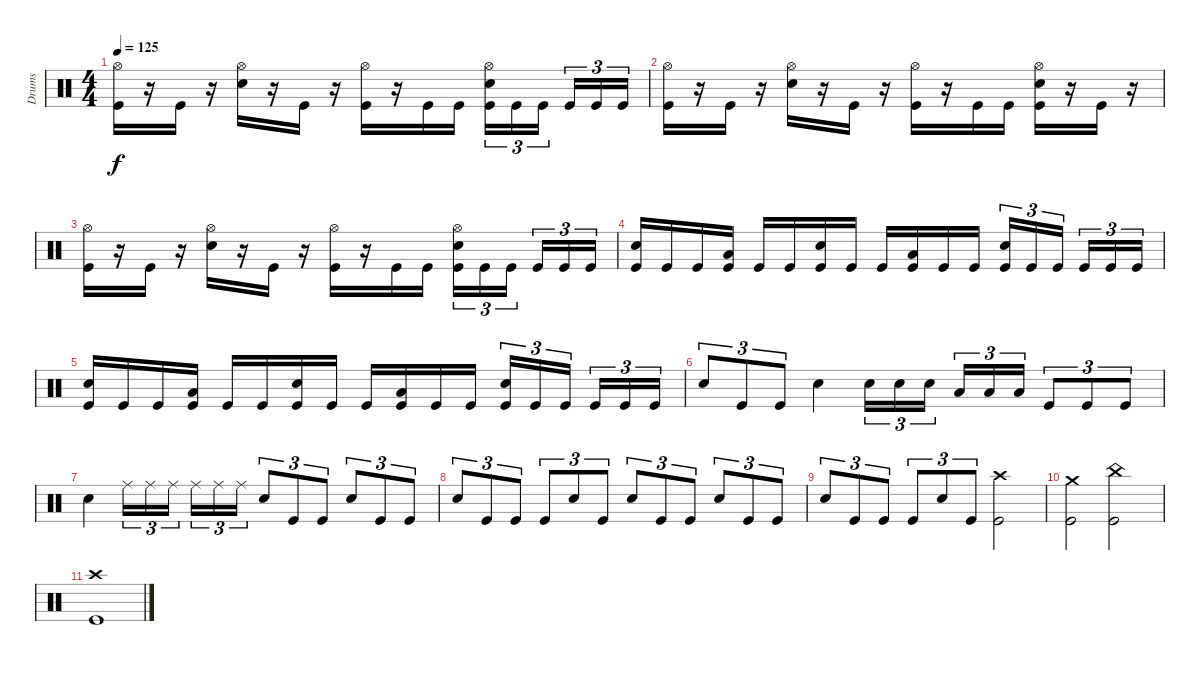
\track ("Drums" "Drums") {instrument percussion}
\staff {score}
\articulation defaults
\ts (4 4)
\tempo 125
\clef neutral
\ks c
("Hi-Hat (open)" "Kick (hit)").16{dy f} r.16 "Kick (hit)".16 r.16 ("Hi-Hat (open)" "Snare (hit) 2").16 r.16 "Kick (hit)".16 r.16 ("Hi-Hat (open)" "Kick (hit)").16 r.16 "Kick (hit)".16 "Kick (hit)".16 ("Hi-Hat (open)" "Snare (hit) 2" "Kick (hit)").16{tu (3 2)} "Kick (hit)".16{tu (3 2)} "Kick (hit)".16{tu (3 2)} "Kick (hit)".16{tu (3 2)} "Kick (hit)".16{tu (3 2)} "Kick (hit)".16{tu (3 2)} |
("Hi-Hat (open)" "Kick (hit)").16 r.16 "Kick (hit)".16 r.16 ("Hi-Hat (open)" "Snare (hit) 2").16 r.16 "Kick (hit)".16 r.16 ("Hi-Hat (open)" "Kick (hit)").16 r.16 "Kick (hit)".16 "Kick (hit)".16 ("Hi-Hat (open)" "Snare (hit) 2" "Kick (hit)").16 r.16 "Kick (hit)".16 r.16 |
("Hi-Hat (open)" "Kick (hit)").16 r.16 "Kick (hit)".16 r.16 ("Hi-Hat (open)" "Snare (hit) 2").16 r.16 "Kick (hit)".16 r.16 ("Hi-Hat (open)" "Kick (hit)").16 r.16 "Kick (hit)".16 "Kick (hit)".16 ("Hi-Hat (open)" "Snare (hit) 2" "Kick (hit)").16{tu (3 2)} "Kick (hit)".16{tu (3 2)} "Kick (hit)".16{tu (3 2)} "Kick (hit)".16{tu (3 2)} "Kick (hit)".16{tu (3 2)} "Kick (hit)".16{tu (3 2)} |
("Snare (hit) 2" "Kick (hit)").16 "Kick (hit)".16 "Kick (hit)".16 ("Low Floor Tom (hit)" "Kick (hit)").16 "Kick (hit)".16 "Kick (hit)".16 ("Snare (hit) 2" "Kick (hit)").16 "Kick (hit)".16 "Kick (hit)".16 ("Low Floor Tom (hit)" "Kick (hit)").16 "Kick (hit)".16 "Kick (hit)".16 ("Snare (hit) 2" "Kick (hit)").16{tu (3 2)} "Kick (hit)".16{tu (3 2)} "Kick (hit)".16{tu (3 2)} "Kick (hit)".16{tu (3 2)} "Kick (hit)".16{tu (3 2)} "Kick (hit)".16{tu (3 2)} |
("Snare (hit) 2" "Kick (hit)").16 "Kick (hit)".16 "Kick (hit)".16 ("Low Floor Tom (hit)" "Kick (hit)").16 "Kick (hit)".16 "Kick (hit)".16 ("Snare (hit) 2" "Kick (hit)").16 "Kick (hit)".16 "Kick (hit)".16 ("Low Floor Tom (hit)" "Kick (hit)").16 "Kick (hit)".16 "Kick (hit)".16 ("Snare (hit) 2" "Kick (hit)").16{tu (3 2)} "Kick (hit)".16{tu (3 2)} "Kick (hit)".16{tu (3 2)} "Kick (hit)".16{tu (3 2)} "Kick (hit)".16{tu (3 2)} "Kick (hit)".16{tu (3 2)} |
"Snare (hit) 2".8{tu (3 2)} "Kick (hit)".8{tu (3 2)} "Kick (hit)".8{tu (3 2)} "Snare (hit) 2".4 "Snare (hit) 2".16{tu (3 2)} "Snare (hit) 2".16{tu (3 2)} "Snare (hit) 2".16{tu (3 2)} "Low Floor Tom (hit)".16{tu (3 2)} "Low Floor Tom (hit)".16{tu (3 2)} "Low Tom (hit)".16{tu (3 2)} "Kick (hit)".8{tu (3 2)} "Kick (hit)".8{tu (3 2)} "Kick (hit)".8{tu (3 2)} |
"Snare (hit) 2".4 "Ride (middle)".16{tu (3 2)} "Ride (middle)".16{tu (3 2)} "Ride (middle)".16{tu (3 2)} "Ride (middle)".16{tu (3 2)} "Ride (middle)".16{tu (3 2)} "Ride (middle)".16{tu (3 2)} "Snare (hit) 2".8{tu (3 2)} "Kick (hit)".8{tu (3 2)} "Kick (hit)".8{tu (3 2)} "Snare (hit) 2".8{tu (3 2)} "Kick (hit)".8{tu (3 2)} "Kick (hit)".8{tu (3 2)} |
"Snare (hit) 2".8{tu (3 2)} "Kick (hit)".8{tu (3 2)} "Kick (hit)".8{tu (3 2)} "Kick (hit)".8{tu (3 2)} "Snare (hit) 2".8{tu (3 2)} "Kick (hit)".8{tu (3 2)} "Snare (hit) 2".8{tu (3 2)} "Kick (hit)".8{tu (3 2)} "Kick (hit)".8{tu (3 2)} "Snare (hit) 2".8{tu (3 2)} "Kick (hit)".8{tu (3 2)} "Kick (hit)".8{tu (3 2)} |
"Snare (hit) 2".8{tu (3 2)} "Kick (hit)".8{tu (3 2)} "Kick (hit)".8{tu (3 2)} "Kick (hit)".8{tu (3 2)} "Snare (hit) 2".8{tu (3 2)} "Kick (hit)".8{tu (3 2)} ("Crash high (hit)" "Kick (hit)").2 |
("Crash medium (hit)" "Kick (hit)").2 ("China (hit)" "Kick (hit)").2 |
("Crash high (hit)" "Kick (hit)").1
